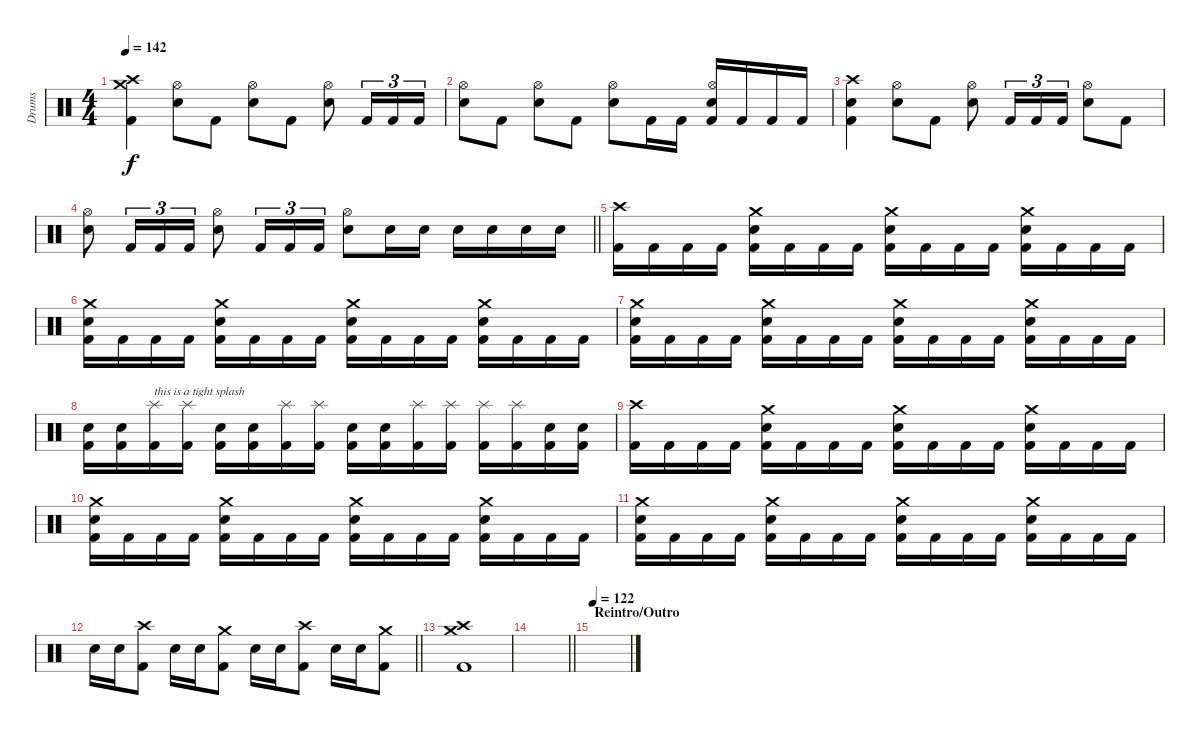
\track ("Drums" "Drums") {instrument percussion}
\staff {score}
\articulation defaults
\ts (4 4)
\tempo 142
\clef neutral
\ks c
("Crash high (hit)" "Crash medium (hit)" "Kick (hit) 2").4{dy f} ("Hi-Hat (open)" "Electric Snare (hit)").8 "Kick (hit) 2".8 ("Hi-Hat (open)" "Electric Snare (hit)").8 "Kick (hit) 2".8 ("Hi-Hat (open)" "Electric Snare (hit)").8 "Kick (hit) 2".16{tu (3 2)} "Kick (hit) 2".16{tu (3 2)} "Kick (hit) 2".16{tu (3 2)} |
("Hi-Hat (open)" "Electric Snare (hit)").8 "Kick (hit) 2".8 ("Hi-Hat (open)" "Electric Snare (hit)").8 "Kick (hit) 2".8 ("Hi-Hat (open)" "Electric Snare (hit)").8 "Kick (hit) 2".16 "Kick (hit) 2".16 ("Hi-Hat (open)" "Electric Snare (hit)" "Kick (hit) 2").16 "Kick (hit) 2".16 "Kick (hit) 2".16 "Kick (hit) 2".16 |
("Crash high (hit)" "Electric Snare (hit)" "Kick (hit) 2").4 ("Hi-Hat (open)" "Electric Snare (hit)").8 "Kick (hit) 2".8 ("Hi-Hat (open)" "Electric Snare (hit)").8 "Kick (hit) 2".16{tu (3 2)} "Kick (hit) 2".16{tu (3 2)} "Kick (hit) 2".16{tu (3 2)} ("Hi-Hat (open)" "Electric Snare (hit)").8 "Kick (hit) 2".8 |
\barLineRight lightlight
("Hi-Hat (open)" "Electric Snare (hit)").8 "Kick (hit) 2".16{tu (3 2)} "Kick (hit) 2".16{tu (3 2)} "Kick (hit) 2".16{tu (3 2)} ("Hi-Hat (open)" "Electric Snare (hit)").8 "Kick (hit) 2".16{tu (3 2)} "Kick (hit) 2".16{tu (3 2)} "Kick (hit) 2".16{tu (3 2)} ("Hi-Hat (open)" "Electric Snare (hit)").8 "Electric Snare (hit)".16 "Electric Snare (hit)".16 "Electric Snare (hit)".16 "Electric Snare (hit)".16 "Electric Snare (hit)".16 "Electric Snare (hit)".16 |
\section ("" "")
("Crash high (hit)" "Kick (hit) 2").16 "Kick (hit) 2".16 "Kick (hit) 2".16 "Kick (hit) 2".16 ("Crash medium (hit)" "Electric Snare (hit)" "Kick (hit) 2").16 "Kick (hit) 2".16 "Kick (hit) 2".16 "Kick (hit) 2".16 ("Crash medium (hit)" "Electric Snare (hit)" "Kick (hit) 2").16 "Kick (hit) 2".16 "Kick (hit) 2".16 "Kick (hit) 2".16 ("Crash medium (hit)" "Electric Snare (hit)" "Kick (hit) 2").16 "Kick (hit) 2".16 "Kick (hit) 2".16 "Kick (hit) 2".16 |
("Crash medium (hit)" "Electric Snare (hit)" "Kick (hit) 2").16 "Kick (hit) 2".16 "Kick (hit) 2".16 "Kick (hit) 2".16 ("Crash medium (hit)" "Electric Snare (hit)" "Kick (hit) 2").16 "Kick (hit) 2".16 "Kick (hit) 2".16 "Kick (hit) 2".16 ("Crash medium (hit)" "Electric Snare (hit)" "Kick (hit) 2").16 "Kick (hit) 2".16 "Kick (hit) 2".16 "Kick (hit) 2".16 ("Crash medium (hit)" "Electric Snare (hit)" "Kick (hit) 2").16 "Kick (hit) 2".16 "Kick (hit) 2".16 "Kick (hit) 2".16 |
("Crash medium (hit)" "Electric Snare (hit)" "Kick (hit) 2").16 "Kick (hit) 2".16 "Kick (hit) 2".16 "Kick (hit) 2".16 ("Crash medium (hit)" "Electric Snare (hit)" "Kick (hit) 2").16 "Kick (hit) 2".16 "Kick (hit) 2".16 "Kick (hit) 2".16 ("Crash medium (hit)" "Electric Snare (hit)" "Kick (hit) 2").16 "Kick (hit) 2".16 "Kick (hit) 2".16 "Kick (hit) 2".16 ("Crash medium (hit)" "Electric Snare (hit)" "Kick (hit) 2").16 "Kick (hit) 2".16 "Kick (hit) 2".16 "Kick (hit) 2".16 |
("Electric Snare (hit)" "Kick (hit) 2").16 ("Electric Snare (hit)" "Kick (hit) 2").16 ("Splash (hit)" "Kick (hit) 2").16{txt "this is a tight splash"} ("Splash (hit)" "Kick (hit) 2").16 ("Electric Snare (hit)" "Kick (hit) 2").16 ("Electric Snare (hit)" "Kick (hit) 2").16 ("Splash (hit)" "Kick (hit) 2").16 ("Splash (hit)" "Kick (hit) 2").16 ("Electric Snare (hit)" "Kick (hit) 2").16 ("Electric Snare (hit)" "Kick (hit) 2").16 ("Splash (hit)" "Kick (hit) 2").16 ("Splash (hit)" "Kick (hit) 2").16 ("Splash (hit)" "Kick (hit) 2").16 ("Splash (hit)" "Kick (hit) 2").16 ("Electric Snare (hit)" "Kick (hit) 2").16 ("Electric Snare (hit)" "Kick (hit) 2").16 |
("Crash high (hit)" "Kick (hit) 2").16 "Kick (hit) 2".16 "Kick (hit) 2".16 "Kick (hit) 2".16 ("Crash medium (hit)" "Electric Snare (hit)" "Kick (hit) 2").16 "Kick (hit) 2".16 "Kick (hit) 2".16 "Kick (hit) 2".16 ("Crash medium (hit)" "Electric Snare (hit)" "Kick (hit) 2").16 "Kick (hit) 2".16 "Kick (hit) 2".16 "Kick (hit) 2".16 ("Crash medium (hit)" "Electric Snare (hit)" "Kick (hit) 2").16 "Kick (hit) 2".16 "Kick (hit) 2".16 "Kick (hit) 2".16 |
("Crash medium (hit)" "Electric Snare (hit)" "Kick (hit) 2").16 "Kick (hit) 2".16 "Kick (hit) 2".16 "Kick (hit) 2".16 ("Crash medium (hit)" "Electric Snare (hit)" "Kick (hit) 2").16 "Kick (hit) 2".16 "Kick (hit) 2".16 "Kick (hit) 2".16 ("Crash medium (hit)" "Electric Snare (hit)" "Kick (hit) 2").16 "Kick (hit) 2".16 "Kick (hit) 2".16 "Kick (hit) 2".16 ("Crash medium (hit)" "Electric Snare (hit)" "Kick (hit) 2").16 "Kick (hit) 2".16 "Kick (hit) 2".16 "Kick (hit) 2".16 |
("Crash medium (hit)" "Electric Snare (hit)" "Kick (hit) 2").16 "Kick (hit) 2".16 "Kick (hit) 2".16 "Kick (hit) 2".16 ("Crash medium (hit)" "Electric Snare (hit)" "Kick (hit) 2").16 "Kick (hit) 2".16 "Kick (hit) 2".16 "Kick (hit) 2".16 ("Crash medium (hit)" "Electric Snare (hit)" "Kick (hit) 2").16 "Kick (hit) 2".16 "Kick (hit) 2".16 "Kick (hit) 2".16 ("Crash medium (hit)" "Electric Snare (hit)" "Kick (hit) 2").16 "Kick (hit) 2".16 "Kick (hit) 2".16 "Kick (hit) 2".16 |
\barLineRight lightlight "Electric Snare (hit)".16 "Electric Snare (hit)".16
("Crash high (hit)" "Kick (hit) 2").8 "Electric Snare (hit)".16 "Electric Snare (hit)".16 ("Crash medium (hit)" "Kick (hit) 2").8 "Electric Snare (hit)".16 "Electric Snare (hit)".16 ("Crash high (hit)" "Kick (hit) 2").8 "Electric Snare (hit)".16 "Electric Snare (hit)".16 ("Crash medium (hit)" "Kick (hit) 2").8 |
\section ("" "")
("Crash high (hit)" "Crash medium (hit)" "Kick (hit) 2").1 |
\barLineRight lightlight
|
\section ("" "Reintro/Outro")
\tempo 122
